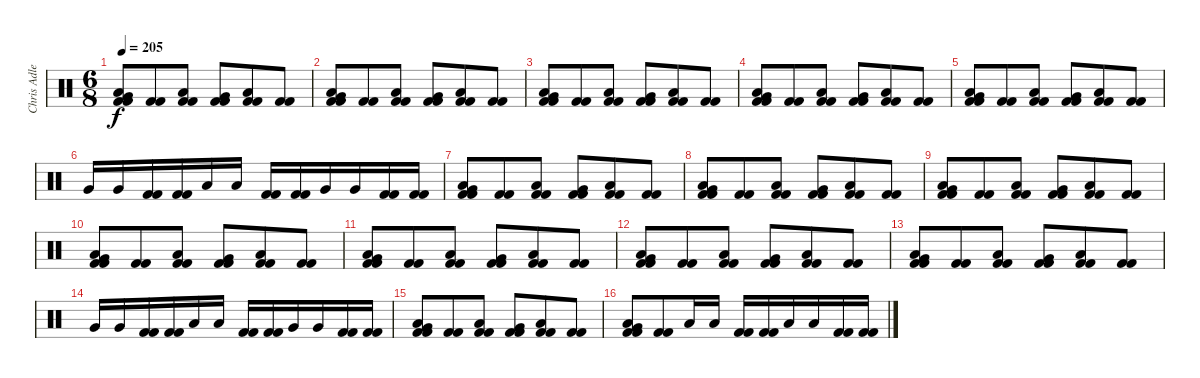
\track ("Chris Adler" "Chris Adle") {instrument percussion}
\staff {score}
\articulation defaults
\ts (6 8)
\tempo 205
\clef neutral
\ks c
("Very Low Tom (hit)" "Low Floor Tom (hit)" "Kick (hit) 2" "Kick (hit) 2").8{dy f} ("Kick (hit) 2" "Kick (hit) 2").8 ("Low Floor Tom (hit)" "Kick (hit) 2" "Kick (hit) 2").8 ("Very Low Tom (hit)" "Kick (hit) 2" "Kick (hit) 2").8 ("Low Floor Tom (hit)" "Kick (hit) 2" "Kick (hit) 2").8 ("Kick (hit) 2" "Kick (hit) 2").8 |
("Very Low Tom (hit)" "Low Floor Tom (hit)" "Kick (hit) 2" "Kick (hit) 2").8 ("Kick (hit) 2" "Kick (hit) 2").8 ("Low Floor Tom (hit)" "Kick (hit) 2" "Kick (hit) 2").8 ("Very Low Tom (hit)" "Kick (hit) 2" "Kick (hit) 2").8 ("Low Floor Tom (hit)" "Kick (hit) 2" "Kick (hit) 2").8 ("Kick (hit) 2" "Kick (hit) 2").8 |
("Very Low Tom (hit)" "Low Floor Tom (hit)" "Kick (hit) 2" "Kick (hit) 2").8 ("Kick (hit) 2" "Kick (hit) 2").8 ("Low Floor Tom (hit)" "Kick (hit) 2" "Kick (hit) 2").8 ("Very Low Tom (hit)" "Kick (hit) 2" "Kick (hit) 2").8 ("Low Floor Tom (hit)" "Kick (hit) 2" "Kick (hit) 2").8 ("Kick (hit) 2" "Kick (hit) 2").8 |
("Very Low Tom (hit)" "Low Floor Tom (hit)" "Kick (hit) 2" "Kick (hit) 2").8 ("Kick (hit) 2" "Kick (hit) 2").8 ("Low Floor Tom (hit)" "Kick (hit) 2" "Kick (hit) 2").8 ("Very Low Tom (hit)" "Kick (hit) 2" "Kick (hit) 2").8 ("Low Floor Tom (hit)" "Kick (hit) 2" "Kick (hit) 2").8 ("Kick (hit) 2" "Kick (hit) 2").8 |
("Very Low Tom (hit)" "Low Floor Tom (hit)" "Kick (hit) 2" "Kick (hit) 2").8 ("Kick (hit) 2" "Kick (hit) 2").8 ("Low Floor Tom (hit)" "Kick (hit) 2" "Kick (hit) 2").8 ("Very Low Tom (hit)" "Kick (hit) 2" "Kick (hit) 2").8 ("Low Floor Tom (hit)" "Kick (hit) 2" "Kick (hit) 2").8 ("Kick (hit) 2" "Kick (hit) 2").8 |
"Very Low Tom (hit)".16 "Very Low Tom (hit)".16 ("Kick (hit) 2" "Kick (hit) 2").16 ("Kick (hit) 2" "Kick (hit) 2").16 "Low Floor Tom (hit)".16 "Low Floor Tom (hit)".16 ("Kick (hit) 2" "Kick (hit) 2").16 ("Kick (hit) 2" "Kick (hit) 2").16 "Very Low Tom (hit)".16 "Very Low Tom (hit)".16 ("Kick (hit) 2" "Kick (hit) 2").16 ("Kick (hit) 2" "Kick (hit) 2").16 |
("Very Low Tom (hit)" "Low Floor Tom (hit)" "Kick (hit) 2" "Kick (hit) 2").8 ("Kick (hit) 2" "Kick (hit) 2").8 ("Low Floor Tom (hit)" "Kick (hit) 2" "Kick (hit) 2").8 ("Very Low Tom (hit)" "Kick (hit) 2" "Kick (hit) 2").8 ("Low Floor Tom (hit)" "Kick (hit) 2" "Kick (hit) 2").8 ("Kick (hit) 2" "Kick (hit) 2").8 |
("Very Low Tom (hit)" "Low Floor Tom (hit)" "Kick (hit) 2" "Kick (hit) 2").8 ("Kick (hit) 2" "Kick (hit) 2").8 ("Low Floor Tom (hit)" "Kick (hit) 2" "Kick (hit) 2").8 ("Very Low Tom (hit)" "Kick (hit) 2" "Kick (hit) 2").8 ("Low Floor Tom (hit)" "Kick (hit) 2" "Kick (hit) 2").8 ("Kick (hit) 2" "Kick (hit) 2").8 |
("Very Low Tom (hit)" "Low Floor Tom (hit)" "Kick (hit) 2" "Kick (hit) 2").8 ("Kick (hit) 2" "Kick (hit) 2").8 ("Low Floor Tom (hit)" "Kick (hit) 2" "Kick (hit) 2").8 ("Very Low Tom (hit)" "Kick (hit) 2" "Kick (hit) 2").8 ("Low Floor Tom (hit)" "Kick (hit) 2" "Kick (hit) 2").8 ("Kick (hit) 2" "Kick (hit) 2").8 |
("Very Low Tom (hit)" "Low Floor Tom (hit)" "Kick (hit) 2" "Kick (hit) 2").8 ("Kick (hit) 2" "Kick (hit) 2").8 ("Low Floor Tom (hit)" "Kick (hit) 2" "Kick (hit) 2").8 ("Very Low Tom (hit)" "Kick (hit) 2" "Kick (hit) 2").8 ("Low Floor Tom (hit)" "Kick (hit) 2" "Kick (hit) 2").8 ("Kick (hit) 2" "Kick (hit) 2").8 |
("Very Low Tom (hit)" "Low Floor Tom (hit)" "Kick (hit) 2" "Kick (hit) 2").8 ("Kick (hit) 2" "Kick (hit) 2").8 ("Low Floor Tom (hit)" "Kick (hit) 2" "Kick (hit) 2").8 ("Very Low Tom (hit)" "Kick (hit) 2" "Kick (hit) 2").8 ("Low Floor Tom (hit)" "Kick (hit) 2" "Kick (hit) 2").8 ("Kick (hit) 2" "Kick (hit) 2").8 |
("Very Low Tom (hit)" "Low Floor Tom (hit)" "Kick (hit) 2" "Kick (hit) 2").8 ("Kick (hit) 2" "Kick (hit) 2").8 ("Low Floor Tom (hit)" "Kick (hit) 2" "Kick (hit) 2").8 ("Very Low Tom (hit)" "Kick (hit) 2" "Kick (hit) 2").8 ("Low Floor Tom (hit)" "Kick (hit) 2" "Kick (hit) 2").8 ("Kick (hit) 2" "Kick (hit) 2").8 |
("Very Low Tom (hit)" "Low Floor Tom (hit)" "Kick (hit) 2" "Kick (hit) 2").8 ("Kick (hit) 2" "Kick (hit) 2").8 ("Low Floor Tom (hit)" "Kick (hit) 2" "Kick (hit) 2").8 ("Very Low Tom (hit)" "Kick (hit) 2" "Kick (hit) 2").8 ("Low Floor Tom (hit)" "Kick (hit) 2" "Kick (hit) 2").8 ("Kick (hit) 2" "Kick (hit) 2").8 |
"Very Low Tom (hit)".16 "Very Low Tom (hit)".16 ("Kick (hit) 2" "Kick (hit) 2").16 ("Kick (hit) 2" "Kick (hit) 2").16 "Low Floor Tom (hit)".16 "Low Floor Tom (hit)".16 ("Kick (hit) 2" "Kick (hit) 2").16 ("Kick (hit) 2" "Kick (hit) 2").16 "Very Low Tom (hit)".16 "Very Low Tom (hit)".16 ("Kick (hit) 2" "Kick (hit) 2").16 ("Kick (hit) 2" "Kick (hit) 2").16 |
("Very Low Tom (hit)" "Low Floor Tom (hit)" "Kick (hit) 2" "Kick (hit) 2").8 ("Kick (hit) 2" "Kick (hit) 2").8 ("Low Floor Tom (hit)" "Kick (hit) 2" "Kick (hit) 2").8 ("Very Low Tom (hit)" "Kick (hit) 2" "Kick (hit) 2").8 ("Low Floor Tom (hit)" "Kick (hit) 2" "Kick (hit) 2").8 ("Kick (hit) 2" "Kick (hit) 2").8 |
("Very Low Tom (hit)" "Low Floor Tom (hit)" "Kick (hit) 2" "Kick (hit) 2").8 ("Kick (hit) 2" "Kick (hit) 2").8 "Low Floor Tom (hit)".16 "Low Floor Tom (hit)".16 ("Kick (hit) 2" "Kick (hit) 2").16 ("Kick (hit) 2" "Kick (hit) 2").16 "Low Floor Tom (hit)".16 "Low Floor Tom (hit)".16 ("Kick (hit) 2" "Kick (hit) 2").16 ("Kick (hit) 2" "Kick (hit) 2").16
